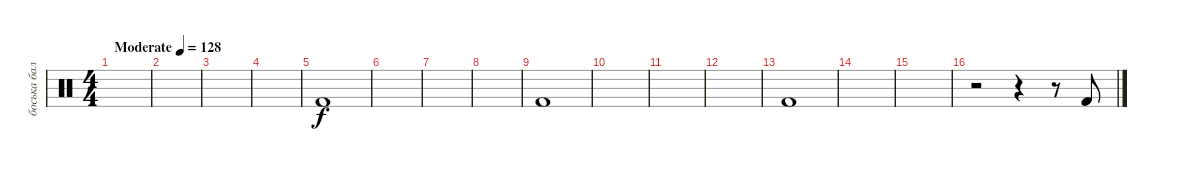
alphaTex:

\track ("боська балабаськов" "боська бал") {instrument percussion}
\staff {score}
\articulation defaults
\ts (4 4)
\tempo (128 "Moderate")
\clef neutral
\ks c
|
|
|
|
"Kick (hit) 2".1 |
|
|
|
"Kick (hit) 2".1 |
|
|
|
"Kick (hit) 2".1 |
|
|
r.2 r.4 r.8 "Kick (hit) 2".8
